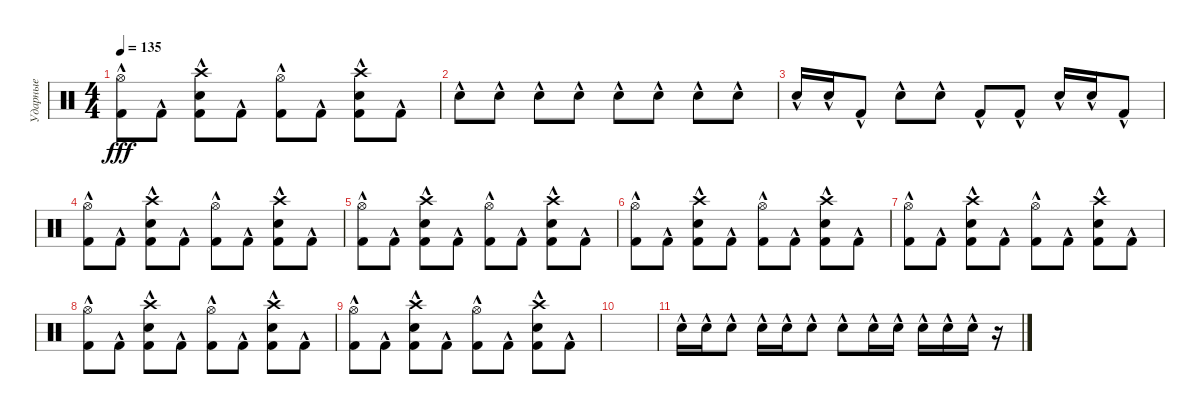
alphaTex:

\track ("Ударные" "Ударные") {instrument percussion}
\staff
\articulation defaults
\ts (4 4)
\tempo 135
\clef neutral
\ks c
("Kick (hit) 2"{hac} "Hi-Hat (open)"{hac}).8{dy fff} "Kick (hit) 2"{hac}.8 ("Kick (hit) 2"{hac} "Electric Snare (hit)"{hac} "Crash high (hit)"{hac}).8 "Kick (hit) 2"{hac}.8 ("Kick (hit) 2"{hac} "Hi-Hat (open)"{hac}).8 "Kick (hit) 2"{hac}.8 ("Kick (hit) 2"{hac} "Electric Snare (hit)"{hac} "Crash high (hit)"{hac}).8 "Kick (hit) 2"{hac}.8 |
"Electric Snare (hit)"{hac}.8 "Electric Snare (hit)"{hac}.8 "Electric Snare (hit)"{hac}.8 "Electric Snare (hit)"{hac}.8 "Electric Snare (hit)"{hac}.8 "Electric Snare (hit)"{hac}.8 "Electric Snare (hit)"{hac}.8 "Electric Snare (hit)"{hac}.8 |
"Electric Snare (hit)"{hac}.16 "Electric Snare (hit)"{hac}.16 "Kick (hit) 2"{hac}.8 "Electric Snare (hit)"{hac}.8 "Electric Snare (hit)"{hac}.8 "Kick (hit) 2"{hac}.8 "Kick (hit) 2"{hac}.8 "Electric Snare (hit)"{hac}.16 "Electric Snare (hit)"{hac}.16 "Kick (hit) 2"{hac}.8 |
("Kick (hit) 2"{hac} "Hi-Hat (open)"{hac}).8 "Kick (hit) 2"{hac}.8 ("Kick (hit) 2"{hac} "Electric Snare (hit)"{hac} "Crash high (hit)"{hac}).8 "Kick (hit) 2"{hac}.8 ("Kick (hit) 2"{hac} "Hi-Hat (open)"{hac}).8 "Kick (hit) 2"{hac}.8 ("Kick (hit) 2"{hac} "Electric Snare (hit)"{hac} "Crash high (hit)"{hac}).8 "Kick (hit) 2"{hac}.8 |
("Kick (hit) 2"{hac} "Hi-Hat (open)"{hac}).8 "Kick (hit) 2"{hac}.8 ("Kick (hit) 2"{hac} "Electric Snare (hit)"{hac} "Crash high (hit)"{hac}).8 "Kick (hit) 2"{hac}.8 ("Kick (hit) 2"{hac} "Hi-Hat (open)"{hac}).8 "Kick (hit) 2"{hac}.8 ("Kick (hit) 2"{hac} "Electric Snare (hit)"{hac} "Crash high (hit)"{hac}).8 "Kick (hit) 2"{hac}.8 |
("Kick (hit) 2"{hac} "Hi-Hat (open)"{hac}).8 "Kick (hit) 2"{hac}.8 ("Kick (hit) 2"{hac} "Electric Snare (hit)"{hac} "Crash high (hit)"{hac}).8 "Kick (hit) 2"{hac}.8 ("Kick (hit) 2"{hac} "Hi-Hat (open)"{hac}).8 "Kick (hit) 2"{hac}.8 ("Kick (hit) 2"{hac} "Electric Snare (hit)"{hac} "Crash high (hit)"{hac}).8 "Kick (hit) 2"{hac}.8 |
("Kick (hit) 2"{hac} "Hi-Hat (open)"{hac}).8 "Kick (hit) 2"{hac}.8 ("Kick (hit) 2"{hac} "Electric Snare (hit)"{hac} "Crash high (hit)"{hac}).8 "Kick (hit) 2"{hac}.8 ("Kick (hit) 2"{hac} "Hi-Hat (open)"{hac}).8 "Kick (hit) 2"{hac}.8 ("Kick (hit) 2"{hac} "Electric Snare (hit)"{hac} "Crash high (hit)"{hac}).8 "Kick (hit) 2"{hac}.8 |
("Kick (hit) 2"{hac} "Hi-Hat (open)"{hac}).8 "Kick (hit) 2"{hac}.8 ("Kick (hit) 2"{hac} "Electric Snare (hit)"{hac} "Crash high (hit)"{hac}).8 "Kick (hit) 2"{hac}.8 ("Kick (hit) 2"{hac} "Hi-Hat (open)"{hac}).8 "Kick (hit) 2"{hac}.8 ("Kick (hit) 2"{hac} "Electric Snare (hit)"{hac} "Crash high (hit)"{hac}).8 "Kick (hit) 2"{hac}.8 |
("Kick (hit) 2"{hac} "Hi-Hat (open)"{hac}).8 "Kick (hit) 2"{hac}.8 ("Kick (hit) 2"{hac} "Electric Snare (hit)"{hac} "Crash high (hit)"{hac}).8 "Kick (hit) 2"{hac}.8 ("Kick (hit) 2"{hac} "Hi-Hat (open)"{hac}).8 "Kick (hit) 2"{hac}.8 ("Kick (hit) 2"{hac} "Electric Snare (hit)"{hac} "Crash high (hit)"{hac}).8 "Kick (hit) 2"{hac}.8 |
|
"Electric Snare (hit)"{hac}.16 "Electric Snare (hit)"{hac}.16 "Electric Snare (hit)"{hac}.8 "Electric Snare (hit)"{hac}.16 "Electric Snare (hit)"{hac}.16 "Electric Snare (hit)"{hac}.8 "Electric Snare (hit)"{hac}.8 "Electric Snare (hit)"{hac}.16 "Electric Snare (hit)"{hac}.16 "Electric Snare (hit)"{hac}.16 "Electric Snare (hit)"{hac}.16 "Electric Snare (hit)"{hac}.16 r.16
